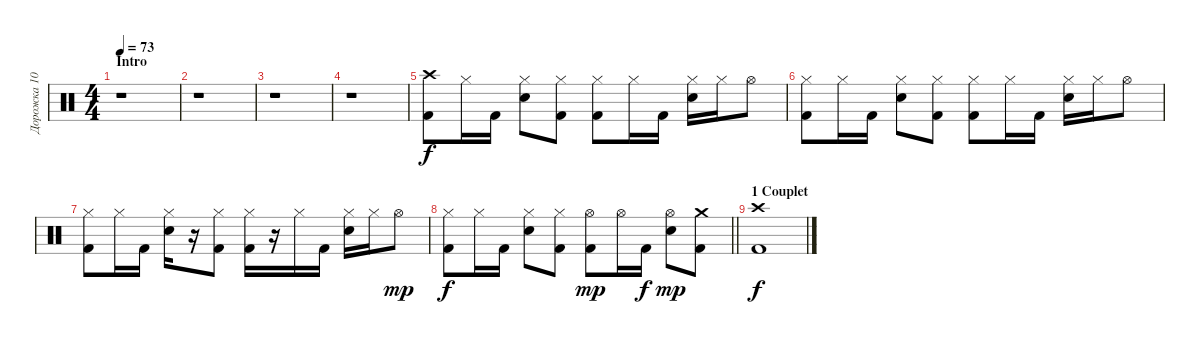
\track ("Дорожка 10" "Дорожка 10") {instrument percussion}
\staff {score}
\articulation defaults
\ts (4 4)
\section ("" "Intro")
\tempo 73
\clef neutral
\ks c
r.1{dy f} |
r.1 |
r.1 |
r.1 |
("Crash high (hit)" "Kick (hit) 2").8 "Hi-Hat (closed)".16 "Kick (hit) 2".16 ("Hi-Hat (closed)" "Snare (hit) 2").8 ("Hi-Hat (closed)" "Kick (hit) 2").8 ("Hi-Hat (closed)" "Kick (hit) 2").8 "Hi-Hat (closed)".16 "Kick (hit) 2".16 ("Hi-Hat (closed)" "Snare (hit) 2").16 "Hi-Hat (closed)".16 "Hi-Hat (open)".8 |
("Hi-Hat (closed)" "Kick (hit) 2").8 "Hi-Hat (closed)".16 "Kick (hit) 2".16 ("Hi-Hat (closed)" "Snare (hit) 2").8 ("Hi-Hat (closed)" "Kick (hit) 2").8 ("Hi-Hat (closed)" "Kick (hit) 2").8 "Hi-Hat (closed)".16 "Kick (hit) 2".16 ("Hi-Hat (closed)" "Snare (hit) 2").16 "Hi-Hat (closed)".16 "Hi-Hat (open)".8 |
("Hi-Hat (closed)" "Kick (hit) 2").8 "Hi-Hat (closed)".16 "Kick (hit) 2".16 ("Hi-Hat (closed)" "Snare (hit) 2").16 r.16 ("Hi-Hat (closed)" "Kick (hit) 2").8 ("Hi-Hat (closed)" "Kick (hit) 2").16 r.16 "Hi-Hat (closed)".16 "Kick (hit) 2".16 ("Hi-Hat (closed)" "Snare (hit) 2").16 "Hi-Hat (closed)".16 "Hi-Hat (open)".8{dy mp} |
\barLineRight lightlight
("Hi-Hat (closed)" "Kick (hit) 2").8{dy f} "Hi-Hat (closed)".16 "Kick (hit) 2".16 ("Hi-Hat (closed)" "Snare (hit) 2").8 ("Hi-Hat (closed)" "Kick (hit) 2").8 ("Hi-Hat (open)" "Kick (hit) 2").8{dy mp} "Hi-Hat (open)".16 "Kick (hit) 2".16{dy f} ("Hi-Hat (open)" "Snare (hit) 2").8{dy mp} ("Crash medium (hit)" "Kick (hit) 2").8 |
\section ("" "1 Couplet")
("Crash high (hit)" "Kick (hit) 2").1{dy f}
